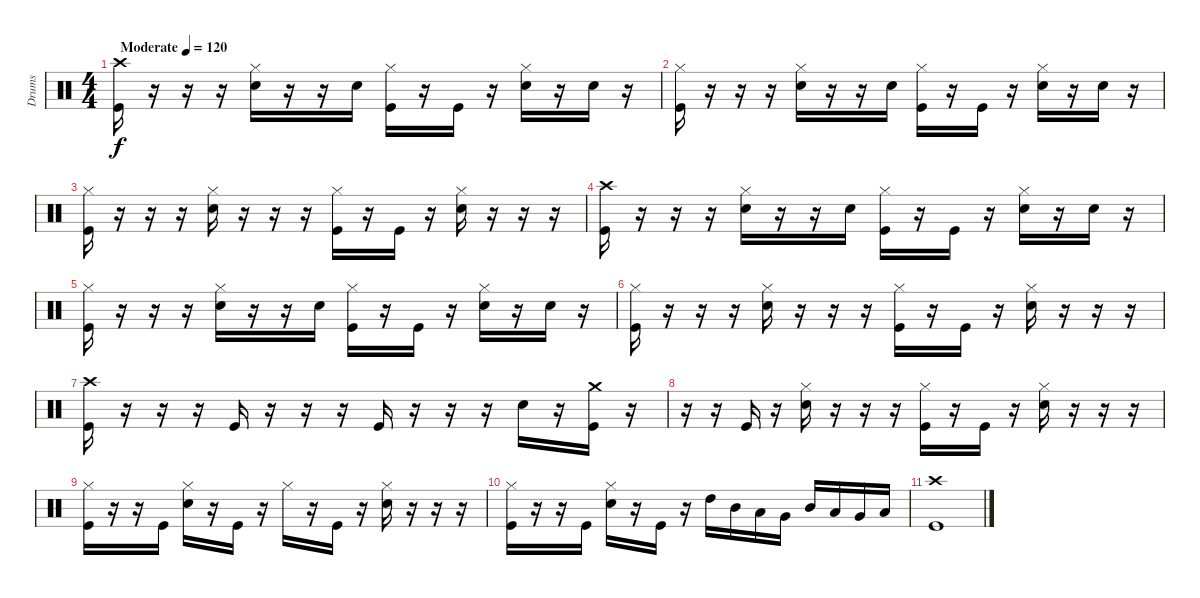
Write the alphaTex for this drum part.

\track ("Drums" "Drums") {instrument percussion}
\staff {score}
\articulation defaults
\ts (4 4)
\tempo (120 "Moderate")
\clef neutral
\ks c
("Crash high (hit)" "Kick (hit)").16{dy f} r.16 r.16 r.16 ("Hi-Hat (closed)" "Electric Snare (hit)").16 r.16 r.16 "Electric Snare (hit)".16 ("Hi-Hat (closed)" "Kick (hit)").16 r.16 "Kick (hit)".16 r.16 ("Hi-Hat (closed)" "Electric Snare (hit)").16 r.16 "Electric Snare (hit)".16 r.16 |
("Hi-Hat (closed)" "Kick (hit)").16 r.16 r.16 r.16 ("Hi-Hat (closed)" "Electric Snare (hit)").16 r.16 r.16 "Electric Snare (hit)".16 ("Hi-Hat (closed)" "Kick (hit)").16 r.16 "Kick (hit)".16 r.16 ("Hi-Hat (closed)" "Electric Snare (hit)").16 r.16 "Electric Snare (hit)".16 r.16 |
("Hi-Hat (closed)" "Kick (hit)").16 r.16 r.16 r.16 ("Hi-Hat (closed)" "Electric Snare (hit)").16 r.16 r.16 r.16 ("Hi-Hat (closed)" "Kick (hit)").16 r.16 "Kick (hit)".16 r.16 ("Hi-Hat (closed)" "Electric Snare (hit)").16 r.16 r.16 r.16 |
("Crash high (hit)" "Kick (hit)").16 r.16 r.16 r.16 ("Hi-Hat (closed)" "Electric Snare (hit)").16 r.16 r.16 "Electric Snare (hit)".16 ("Hi-Hat (closed)" "Kick (hit)").16 r.16 "Kick (hit)".16 r.16 ("Hi-Hat (closed)" "Electric Snare (hit)").16 r.16 "Electric Snare (hit)".16 r.16 |
("Hi-Hat (closed)" "Kick (hit)").16 r.16 r.16 r.16 ("Hi-Hat (closed)" "Electric Snare (hit)").16 r.16 r.16 "Electric Snare (hit)".16 ("Hi-Hat (closed)" "Kick (hit)").16 r.16 "Kick (hit)".16 r.16 ("Hi-Hat (closed)" "Electric Snare (hit)").16 r.16 "Electric Snare (hit)".16 r.16 |
("Hi-Hat (closed)" "Kick (hit)").16 r.16 r.16 r.16 ("Hi-Hat (closed)" "Electric Snare (hit)").16 r.16 r.16 r.16 ("Hi-Hat (closed)" "Kick (hit)").16 r.16 "Kick (hit)".16 r.16 ("Hi-Hat (closed)" "Electric Snare (hit)").16 r.16 r.16 r.16 |
("Crash high (hit)" "Kick (hit)").16 r.16 r.16 r.16 "Kick (hit)".16 r.16 r.16 r.16 "Kick (hit)".16 r.16 r.16 r.16 "Electric Snare (hit)".16 r.16 ("Crash medium (hit)" "Kick (hit)").16 r.16 |
r.16 r.16 "Kick (hit)".16 r.16 ("Hi-Hat (closed)" "Electric Snare (hit)").16 r.16 r.16 r.16 ("Hi-Hat (closed)" "Kick (hit)").16 r.16 "Kick (hit)".16 r.16 ("Hi-Hat (closed)" "Electric Snare (hit)").16 r.16 r.16 r.16 |
("Hi-Hat (closed)" "Kick (hit)").16 r.16 r.16 "Kick (hit)".16 ("Hi-Hat (closed)" "Electric Snare (hit)").16 r.16 "Kick (hit)".16 r.16 "Hi-Hat (closed)".16 r.16 "Kick (hit)".16 r.16 ("Hi-Hat (closed)" "Electric Snare (hit)").16 r.16 r.16 r.16 |
("Hi-Hat (closed)" "Kick (hit)").16 r.16 r.16 "Kick (hit)".16 ("Hi-Hat (closed)" "Electric Snare (hit)").16 r.16 "Kick (hit)".16 r.16 "High Tom (hit)".16 "Mid Tom (hit)".16 "Low Tom (hit)".16 "Very Low Tom (hit)".16 "Mid Tom (hit)".16 "Low Tom (hit)".16 "Very Low Tom (hit)".16 "Low Floor Tom (hit)".16 |
("Crash high (hit)" "Kick (hit)").1
